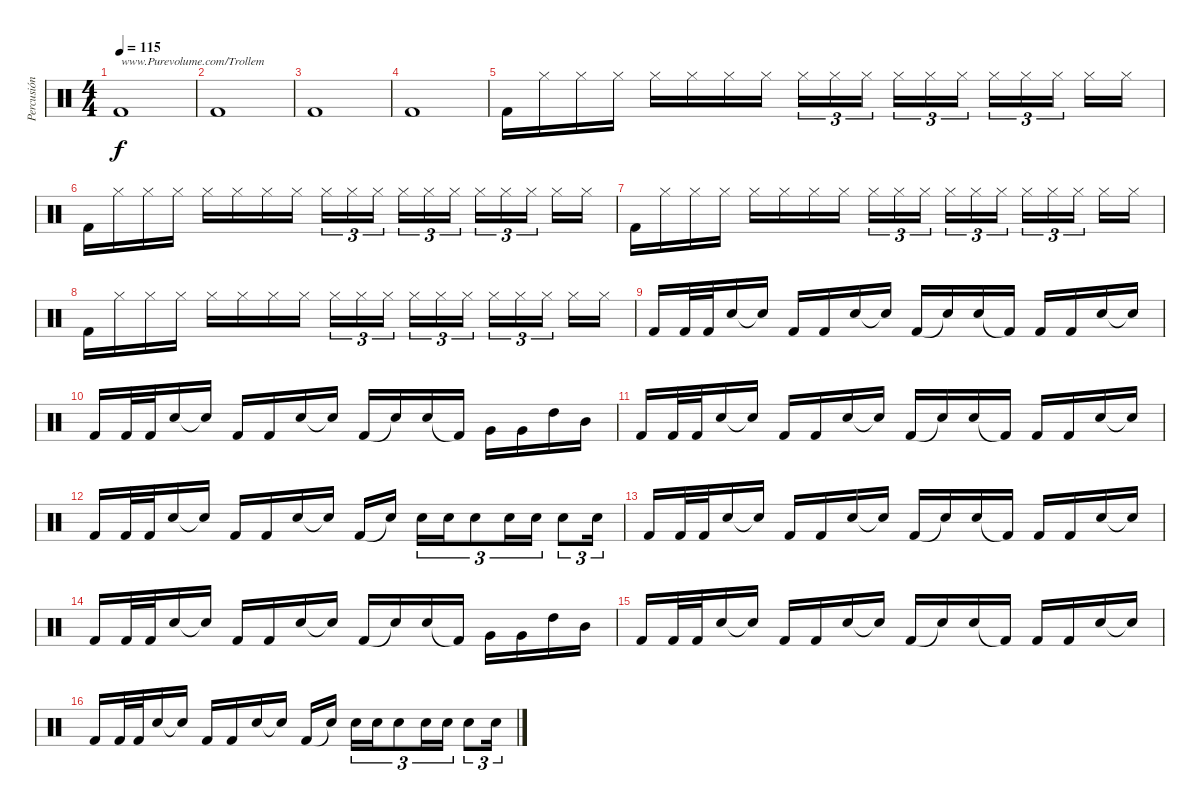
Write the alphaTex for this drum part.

\track ("Percusión" "Percusión") {instrument percussion}
\staff {score}
\articulation defaults
\ts (4 4)
\tempo 115
\clef neutral
\ks c "Kick (hit) 2".1{txt "www.Purevolume.com/Trollem" dy f}
|
"Kick (hit) 2".1 |
"Kick (hit) 2".1 |
"Kick (hit) 2".1 |
"Kick (hit) 2".16 "Hi-Hat (closed)".16 "Hi-Hat (closed)".16 "Hi-Hat (closed)".16 "Hi-Hat (closed)".16 "Hi-Hat (closed)".16 "Hi-Hat (closed)".16 "Hi-Hat (closed)".16 "Hi-Hat (closed)".16{tu (3 2)} "Hi-Hat (closed)".16{tu (3 2)} "Hi-Hat (closed)".16{tu (3 2)} "Hi-Hat (closed)".16{tu (3 2)} "Hi-Hat (closed)".16{tu (3 2)} "Hi-Hat (closed)".16{tu (3 2)} "Hi-Hat (closed)".16{tu (3 2)} "Hi-Hat (closed)".16{tu (3 2)} "Hi-Hat (closed)".16{tu (3 2)} "Hi-Hat (closed)".16 "Hi-Hat (closed)".16 |
"Kick (hit) 2".16 "Hi-Hat (closed)".16 "Hi-Hat (closed)".16 "Hi-Hat (closed)".16 "Hi-Hat (closed)".16 "Hi-Hat (closed)".16 "Hi-Hat (closed)".16 "Hi-Hat (closed)".16 "Hi-Hat (closed)".16{tu (3 2)} "Hi-Hat (closed)".16{tu (3 2)} "Hi-Hat (closed)".16{tu (3 2)} "Hi-Hat (closed)".16{tu (3 2)} "Hi-Hat (closed)".16{tu (3 2)} "Hi-Hat (closed)".16{tu (3 2)} "Hi-Hat (closed)".16{tu (3 2)} "Hi-Hat (closed)".16{tu (3 2)} "Hi-Hat (closed)".16{tu (3 2)} "Hi-Hat (closed)".16 "Hi-Hat (closed)".16 |
"Kick (hit) 2".16 "Hi-Hat (closed)".16 "Hi-Hat (closed)".16 "Hi-Hat (closed)".16 "Hi-Hat (closed)".16 "Hi-Hat (closed)".16 "Hi-Hat (closed)".16 "Hi-Hat (closed)".16 "Hi-Hat (closed)".16{tu (3 2)} "Hi-Hat (closed)".16{tu (3 2)} "Hi-Hat (closed)".16{tu (3 2)} "Hi-Hat (closed)".16{tu (3 2)} "Hi-Hat (closed)".16{tu (3 2)} "Hi-Hat (closed)".16{tu (3 2)} "Hi-Hat (closed)".16{tu (3 2)} "Hi-Hat (closed)".16{tu (3 2)} "Hi-Hat (closed)".16{tu (3 2)} "Hi-Hat (closed)".16 "Hi-Hat (closed)".16 |
"Kick (hit) 2".16 "Hi-Hat (closed)".16 "Hi-Hat (closed)".16 "Hi-Hat (closed)".16 "Hi-Hat (closed)".16 "Hi-Hat (closed)".16 "Hi-Hat (closed)".16 "Hi-Hat (closed)".16 "Hi-Hat (closed)".16{tu (3 2)} "Hi-Hat (closed)".16{tu (3 2)} "Hi-Hat (closed)".16{tu (3 2)} "Hi-Hat (closed)".16{tu (3 2)} "Hi-Hat (closed)".16{tu (3 2)} "Hi-Hat (closed)".16{tu (3 2)} "Hi-Hat (closed)".16{tu (3 2)} "Hi-Hat (closed)".16{tu (3 2)} "Hi-Hat (closed)".16{tu (3 2)} "Hi-Hat (closed)".16 "Hi-Hat (closed)".16 |
"Kick (hit) 2".16 "Kick (hit) 2".32 "Kick (hit) 2".32 "Electric Snare (hit)".16 "Snare (hit)"{t}.16 "Kick (hit) 2".16 "Kick (hit) 2".16 "Electric Snare (hit)".16 "Snare (hit)"{t}.16 "Kick (hit) 2".16 "Snare (hit)"{t}.16 "Electric Snare (hit)".16 "Kick (hit) 2"{t}.16 "Kick (hit) 2".16 "Kick (hit) 2".16 "Electric Snare (hit)".16 "Snare (hit)"{t}.16 |
"Kick (hit) 2".16 "Kick (hit) 2".32 "Kick (hit) 2".32 "Electric Snare (hit)".16 "Snare (hit)"{t}.16 "Kick (hit) 2".16 "Kick (hit) 2".16 "Electric Snare (hit)".16 "Snare (hit)"{t}.16 "Kick (hit) 2".16 "Snare (hit)"{t}.16 "Electric Snare (hit)".16 "Kick (hit) 2"{t}.16 "Very Low Tom (hit)".16 "Very Low Tom (hit)".16 "High Tom (hit)".16 "Mid Tom (hit)".16 |
"Kick (hit) 2".16 "Kick (hit) 2".32 "Kick (hit) 2".32 "Electric Snare (hit)".16 "Snare (hit)"{t}.16 "Kick (hit) 2".16 "Kick (hit) 2".16 "Electric Snare (hit)".16 "Snare (hit)"{t}.16 "Kick (hit) 2".16 "Snare (hit)"{t}.16 "Electric Snare (hit)".16 "Kick (hit) 2"{t}.16 "Kick (hit) 2".16 "Kick (hit) 2".16 "Electric Snare (hit)".16 "Snare (hit)"{t}.16 |
"Kick (hit) 2".16 "Kick (hit) 2".32 "Kick (hit) 2".32 "Electric Snare (hit)".16 "Snare (hit)"{t}.16 "Kick (hit) 2".16 "Kick (hit) 2".16 "Electric Snare (hit)".16 "Snare (hit)"{t}.16 "Kick (hit) 2".16 "Snare (hit)"{t}.16 "Electric Snare (hit)".16{tu (3 2)} "Electric Snare (hit)".16{tu (3 2)} "Electric Snare (hit)".8{tu (3 2)} "Electric Snare (hit)".16{tu (3 2)} "Electric Snare (hit)".16{tu (3 2)} "Electric Snare (hit)".8{tu (3 2)} "Electric Snare (hit)".16{tu (3 2)} |
"Kick (hit) 2".16 "Kick (hit) 2".32 "Kick (hit) 2".32 "Electric Snare (hit)".16 "Snare (hit)"{t}.16 "Kick (hit) 2".16 "Kick (hit) 2".16 "Electric Snare (hit)".16 "Snare (hit)"{t}.16 "Kick (hit) 2".16 "Snare (hit)"{t}.16 "Electric Snare (hit)".16 "Kick (hit) 2"{t}.16 "Kick (hit) 2".16 "Kick (hit) 2".16 "Electric Snare (hit)".16 "Snare (hit)"{t}.16 |
"Kick (hit) 2".16 "Kick (hit) 2".32 "Kick (hit) 2".32 "Electric Snare (hit)".16 "Snare (hit)"{t}.16 "Kick (hit) 2".16 "Kick (hit) 2".16 "Electric Snare (hit)".16 "Snare (hit)"{t}.16 "Kick (hit) 2".16 "Snare (hit)"{t}.16 "Electric Snare (hit)".16 "Kick (hit) 2"{t}.16 "Very Low Tom (hit)".16 "Very Low Tom (hit)".16 "High Tom (hit)".16 "Mid Tom (hit)".16 |
"Kick (hit) 2".16 "Kick (hit) 2".32 "Kick (hit) 2".32 "Electric Snare (hit)".16 "Snare (hit)"{t}.16 "Kick (hit) 2".16 "Kick (hit) 2".16 "Electric Snare (hit)".16 "Snare (hit)"{t}.16 "Kick (hit) 2".16 "Snare (hit)"{t}.16 "Electric Snare (hit)".16 "Kick (hit) 2"{t}.16 "Kick (hit) 2".16 "Kick (hit) 2".16 "Electric Snare (hit)".16 "Snare (hit)"{t}.16 |
"Kick (hit) 2".16 "Kick (hit) 2".32 "Kick (hit) 2".32 "Electric Snare (hit)".16 "Snare (hit)"{t}.16 "Kick (hit) 2".16 "Kick (hit) 2".16 "Electric Snare (hit)".16 "Snare (hit)"{t}.16 "Kick (hit) 2".16 "Snare (hit)"{t}.16 "Electric Snare (hit)".16{tu (3 2)} "Electric Snare (hit)".16{tu (3 2)} "Electric Snare (hit)".8{tu (3 2)} "Electric Snare (hit)".16{tu (3 2)} "Electric Snare (hit)".16{tu (3 2)} "Electric Snare (hit)".8{tu (3 2)} "Electric Snare (hit)".16{tu (3 2)}
